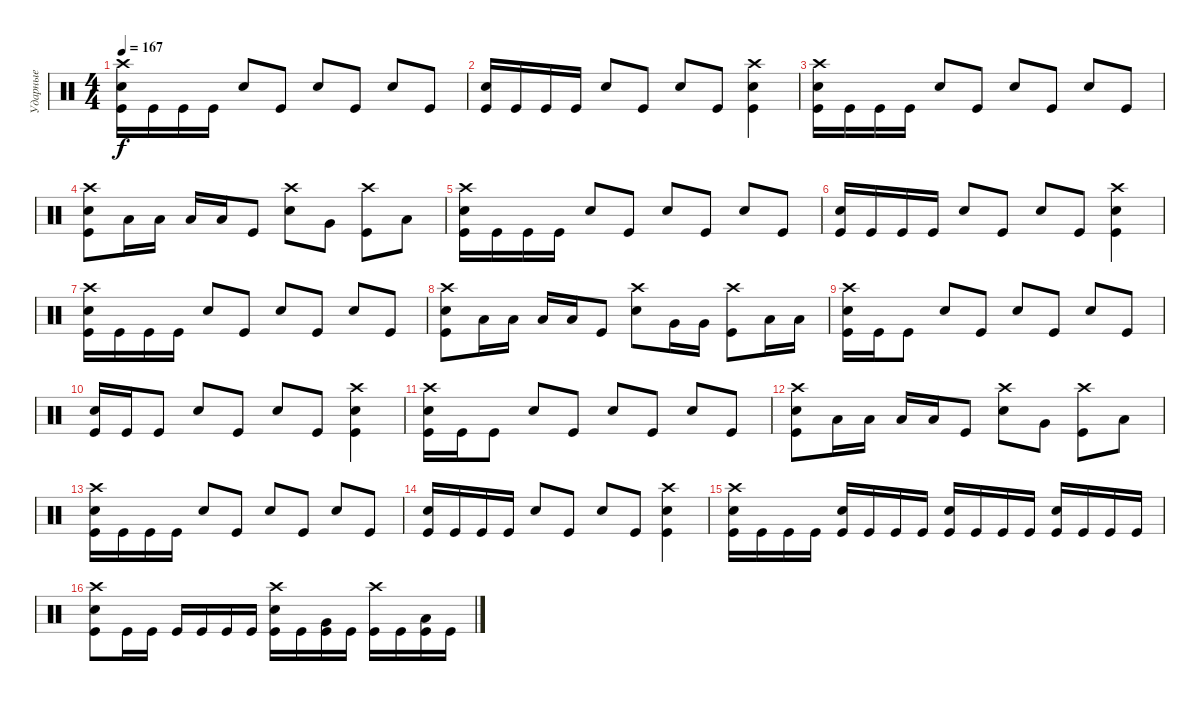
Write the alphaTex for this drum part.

\track ("Ударные" "Ударные") {instrument percussion}
\staff {score}
\articulation defaults
\ts (4 4)
\tempo 167
\clef neutral
\ks c
("Crash high (hit)" "Electric Snare (hit)" "Kick (hit)").16{dy f} "Kick (hit)".16 "Kick (hit)".16 "Kick (hit)".16 "Electric Snare (hit)".8 "Kick (hit)".8 "Electric Snare (hit)".8 "Kick (hit)".8 "Electric Snare (hit)".8 "Kick (hit)".8 |
("Electric Snare (hit)" "Kick (hit)").16 "Kick (hit)".16 "Kick (hit)".16 "Kick (hit)".16 "Electric Snare (hit)".8 "Kick (hit)".8 "Electric Snare (hit)".8 "Kick (hit)".8 ("Crash high (hit)" "Electric Snare (hit)" "Kick (hit)").4 |
("Crash high (hit)" "Electric Snare (hit)" "Kick (hit)").16 "Kick (hit)".16 "Kick (hit)".16 "Kick (hit)".16 "Electric Snare (hit)".8 "Kick (hit)".8 "Electric Snare (hit)".8 "Kick (hit)".8 "Electric Snare (hit)".8 "Kick (hit)".8 |
("Crash high (hit)" "Electric Snare (hit)" "Kick (hit)").8 "Low Tom (hit)".16 "Low Tom (hit)".16 "Low Tom (hit)".16 "Low Tom (hit)".16 "Kick (hit)".8 ("Crash high (hit)" "Electric Snare (hit)").8 "Very Low Tom (hit)".8 ("Crash high (hit)" "Kick (hit)").8 "Low Tom (hit)".8 |
("Crash high (hit)" "Electric Snare (hit)" "Kick (hit)").16 "Kick (hit)".16 "Kick (hit)".16 "Kick (hit)".16 "Electric Snare (hit)".8 "Kick (hit)".8 "Electric Snare (hit)".8 "Kick (hit)".8 "Electric Snare (hit)".8 "Kick (hit)".8 |
("Electric Snare (hit)" "Kick (hit)").16 "Kick (hit)".16 "Kick (hit)".16 "Kick (hit)".16 "Electric Snare (hit)".8 "Kick (hit)".8 "Electric Snare (hit)".8 "Kick (hit)".8 ("Crash high (hit)" "Electric Snare (hit)" "Kick (hit)").4 |
("Crash high (hit)" "Electric Snare (hit)" "Kick (hit)").16 "Kick (hit)".16 "Kick (hit)".16 "Kick (hit)".16 "Electric Snare (hit)".8 "Kick (hit)".8 "Electric Snare (hit)".8 "Kick (hit)".8 "Electric Snare (hit)".8 "Kick (hit)".8 |
("Crash high (hit)" "Electric Snare (hit)" "Kick (hit)").8 "Low Tom (hit)".16 "Low Tom (hit)".16 "Low Tom (hit)".16 "Low Tom (hit)".16 "Kick (hit)".8 ("Crash high (hit)" "Electric Snare (hit)").8 "Very Low Tom (hit)".16 "Very Low Tom (hit)".16 ("Crash high (hit)" "Kick (hit)").8 "Low Tom (hit)".16 "Low Tom (hit)".16 |
("Crash high (hit)" "Electric Snare (hit)" "Kick (hit)").16 "Kick (hit)".16 "Kick (hit)".8 "Electric Snare (hit)".8 "Kick (hit)".8 "Electric Snare (hit)".8 "Kick (hit)".8 "Electric Snare (hit)".8 "Kick (hit)".8 |
("Electric Snare (hit)" "Kick (hit)").16 "Kick (hit)".16 "Kick (hit)".8 "Electric Snare (hit)".8 "Kick (hit)".8 "Electric Snare (hit)".8 "Kick (hit)".8 ("Crash high (hit)" "Electric Snare (hit)" "Kick (hit)").4 |
("Crash high (hit)" "Electric Snare (hit)" "Kick (hit)").16 "Kick (hit)".16 "Kick (hit)".8 "Electric Snare (hit)".8 "Kick (hit)".8 "Electric Snare (hit)".8 "Kick (hit)".8 "Electric Snare (hit)".8 "Kick (hit)".8 |
("Crash high (hit)" "Electric Snare (hit)" "Kick (hit)").8 "Low Tom (hit)".16 "Low Tom (hit)".16 "Low Tom (hit)".16 "Low Tom (hit)".16 "Kick (hit)".8 ("Crash high (hit)" "Electric Snare (hit)").8 "Very Low Tom (hit)".8 ("Crash high (hit)" "Kick (hit)").8 "Low Tom (hit)".8 |
("Crash high (hit)" "Electric Snare (hit)" "Kick (hit)").16 "Kick (hit)".16 "Kick (hit)".16 "Kick (hit)".16 "Electric Snare (hit)".8 "Kick (hit)".8 "Electric Snare (hit)".8 "Kick (hit)".8 "Electric Snare (hit)".8 "Kick (hit)".8 |
("Electric Snare (hit)" "Kick (hit)").16 "Kick (hit)".16 "Kick (hit)".16 "Kick (hit)".16 "Electric Snare (hit)".8 "Kick (hit)".8 "Electric Snare (hit)".8 "Kick (hit)".8 ("Crash high (hit)" "Electric Snare (hit)" "Kick (hit)").4 |
("Crash high (hit)" "Electric Snare (hit)" "Kick (hit)").16 "Kick (hit)".16 "Kick (hit)".16 "Kick (hit)".16 ("Electric Snare (hit)" "Kick (hit)").16 "Kick (hit)".16 "Kick (hit)".16 "Kick (hit)".16 ("Electric Snare (hit)" "Kick (hit)").16 "Kick (hit)".16 "Kick (hit)".16 "Kick (hit)".16 ("Electric Snare (hit)" "Kick (hit)").16 "Kick (hit)".16 "Kick (hit)".16 "Kick (hit)".16 |
("Crash high (hit)" "Electric Snare (hit)" "Kick (hit)").8 "Kick (hit)".16 "Kick (hit)".16 "Kick (hit)".16 "Kick (hit)".16 "Kick (hit)".16 "Kick (hit)".16 ("Crash high (hit)" "Electric Snare (hit)" "Kick (hit)").16 "Kick (hit)".16 ("Very Low Tom (hit)" "Kick (hit)").16 "Kick (hit)".16 ("Crash high (hit)" "Kick (hit)").16 "Kick (hit)".16 ("Low Tom (hit)" "Kick (hit)").16 "Kick (hit)".16
